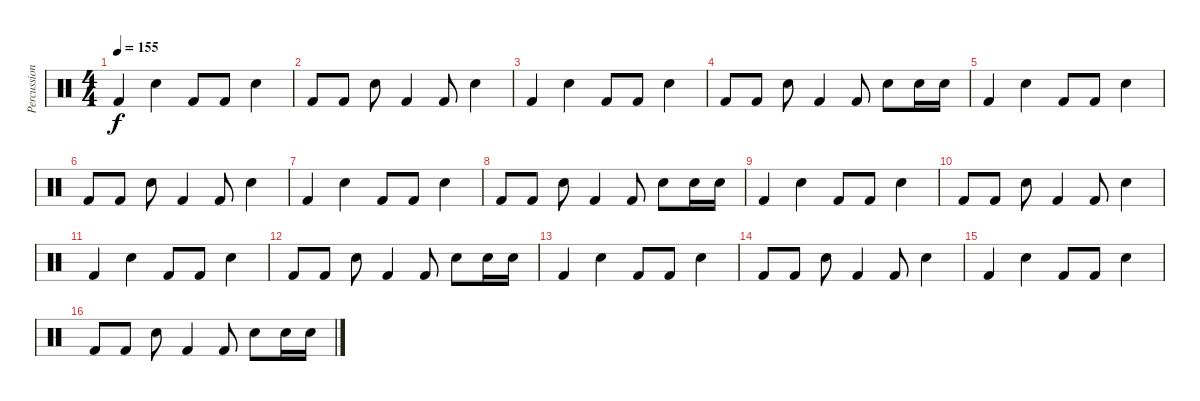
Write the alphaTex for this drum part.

\track ("Percussion" "Percussion") {instrument percussion}
\staff {score}
\articulation defaults
\ts (4 4)
\tempo 155
\clef neutral
\ks c "Kick (hit) 2".4{dy f} "Snare (hit) 2".4 "Kick (hit) 2".8 "Kick (hit) 2".8 "Snare (hit) 2".4
|
"Kick (hit) 2".8 "Kick (hit) 2".8 "Snare (hit) 2".8 "Kick (hit) 2".4 "Kick (hit) 2".8 "Snare (hit) 2".4 |
"Kick (hit) 2".4 "Snare (hit) 2".4 "Kick (hit) 2".8 "Kick (hit) 2".8 "Snare (hit) 2".4 |
"Kick (hit) 2".8 "Kick (hit) 2".8 "Snare (hit) 2".8 "Kick (hit) 2".4 "Kick (hit) 2".8 "Snare (hit) 2".8 "Snare (hit) 2".16 "Snare (hit) 2".16 |
"Kick (hit) 2".4 "Snare (hit) 2".4 "Kick (hit) 2".8 "Kick (hit) 2".8 "Snare (hit) 2".4 |
"Kick (hit) 2".8 "Kick (hit) 2".8 "Snare (hit) 2".8 "Kick (hit) 2".4 "Kick (hit) 2".8 "Snare (hit) 2".4 |
"Kick (hit) 2".4 "Snare (hit) 2".4 "Kick (hit) 2".8 "Kick (hit) 2".8 "Snare (hit) 2".4 |
"Kick (hit) 2".8 "Kick (hit) 2".8 "Snare (hit) 2".8 "Kick (hit) 2".4 "Kick (hit) 2".8 "Snare (hit) 2".8 "Snare (hit) 2".16 "Snare (hit) 2".16 |
"Kick (hit) 2".4 "Snare (hit) 2".4 "Kick (hit) 2".8 "Kick (hit) 2".8 "Snare (hit) 2".4 |
"Kick (hit) 2".8 "Kick (hit) 2".8 "Snare (hit) 2".8 "Kick (hit) 2".4 "Kick (hit) 2".8 "Snare (hit) 2".4 |
"Kick (hit) 2".4 "Snare (hit) 2".4 "Kick (hit) 2".8 "Kick (hit) 2".8 "Snare (hit) 2".4 |
"Kick (hit) 2".8 "Kick (hit) 2".8 "Snare (hit) 2".8 "Kick (hit) 2".4 "Kick (hit) 2".8 "Snare (hit) 2".8 "Snare (hit) 2".16 "Snare (hit) 2".16 |
"Kick (hit) 2".4 "Snare (hit) 2".4 "Kick (hit) 2".8 "Kick (hit) 2".8 "Snare (hit) 2".4 |
"Kick (hit) 2".8 "Kick (hit) 2".8 "Snare (hit) 2".8 "Kick (hit) 2".4 "Kick (hit) 2".8 "Snare (hit) 2".4 |
"Kick (hit) 2".4 "Snare (hit) 2".4 "Kick (hit) 2".8 "Kick (hit) 2".8 "Snare (hit) 2".4 |
"Kick (hit) 2".8 "Kick (hit) 2".8 "Snare (hit) 2".8 "Kick (hit) 2".4 "Kick (hit) 2".8 "Snare (hit) 2".8 "Snare (hit) 2".16 "Snare (hit) 2".16
